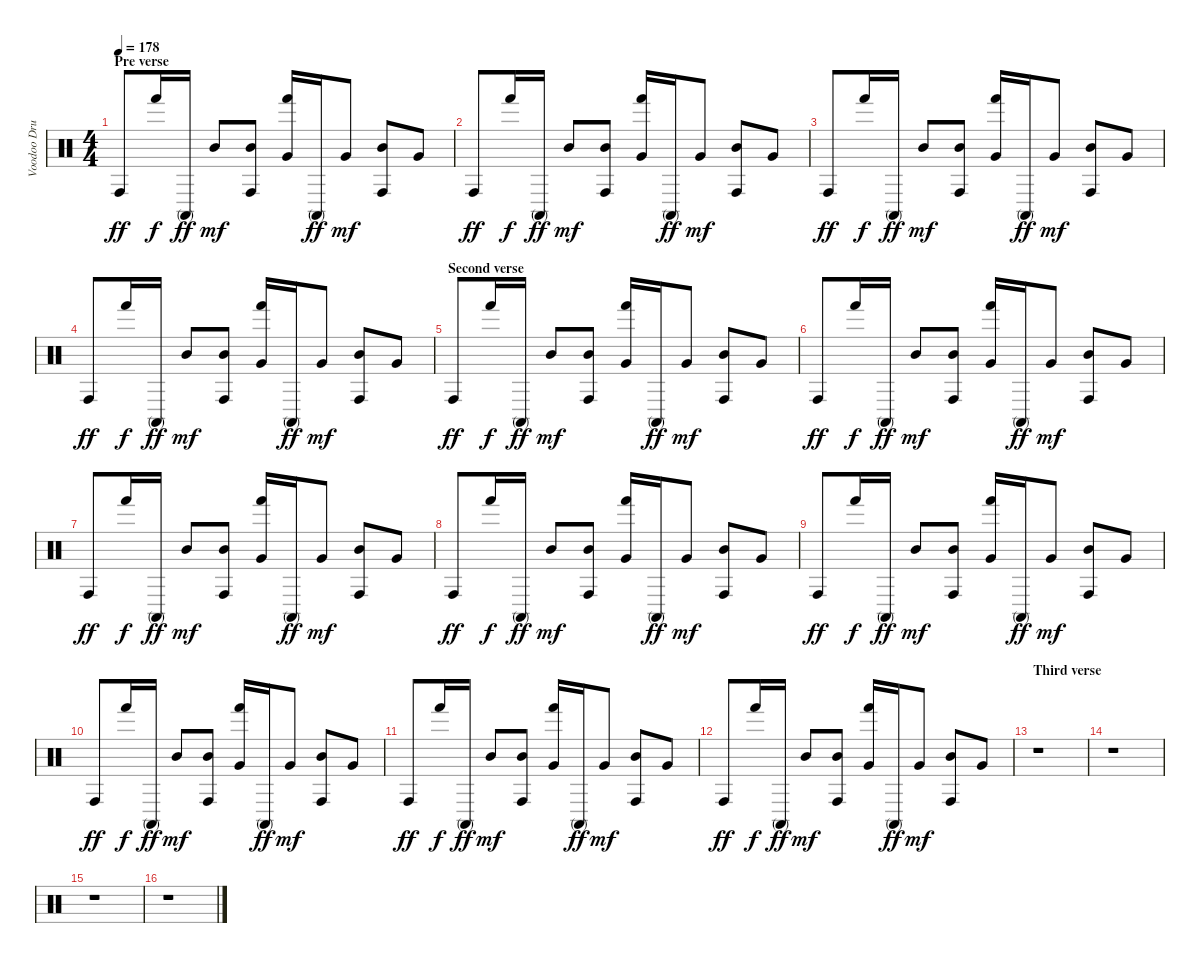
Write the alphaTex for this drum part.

\track ("Voodoo Drums" "Voodoo Dru") {instrument percussion}
\staff {score}
\articulation defaults
\ts (4 4)
\section ("" "Pre verse")
\tempo 178
\clef neutral
\ks c "Conga high (hit)".8{dy ff} "Hand (hit)".16{dy f} "Conga high (mute)".16{dy ff} "Mid Tom (hit)".8{dy mf}
("Conga high (hit)" "Mid Tom (hit)").8 ("Hand (hit)" "Very Low Tom (hit)").16 "Conga high (mute)".16{dy ff} "Very Low Tom (hit)".8{dy mf} ("Conga high (hit)" "Mid Tom (hit)").8 "Very Low Tom (hit)".8 |
"Conga high (hit)".8{dy ff} "Hand (hit)".16{dy f} "Conga high (mute)".16{dy ff} "Mid Tom (hit)".8{dy mf} ("Conga high (hit)" "Mid Tom (hit)").8 ("Hand (hit)" "Very Low Tom (hit)").16 "Conga high (mute)".16{dy ff} "Very Low Tom (hit)".8{dy mf} ("Conga high (hit)" "Mid Tom (hit)").8 "Very Low Tom (hit)".8 |
"Conga high (hit)".8{dy ff} "Hand (hit)".16{dy f} "Conga high (mute)".16{dy ff} "Mid Tom (hit)".8{dy mf} ("Conga high (hit)" "Mid Tom (hit)").8 ("Hand (hit)" "Very Low Tom (hit)").16 "Conga high (mute)".16{dy ff} "Very Low Tom (hit)".8{dy mf} ("Conga high (hit)" "Mid Tom (hit)").8 "Very Low Tom (hit)".8 |
"Conga high (hit)".8{dy ff} "Hand (hit)".16{dy f} "Conga high (mute)".16{dy ff} "Mid Tom (hit)".8{dy mf} ("Conga high (hit)" "Mid Tom (hit)").8 ("Hand (hit)" "Very Low Tom (hit)").16 "Conga high (mute)".16{dy ff} "Very Low Tom (hit)".8{dy mf} ("Conga high (hit)" "Mid Tom (hit)").8 "Very Low Tom (hit)".8 |
\section ("" "Second verse")
"Conga high (hit)".8{dy ff} "Hand (hit)".16{dy f} "Conga high (mute)".16{dy ff} "Mid Tom (hit)".8{dy mf} ("Conga high (hit)" "Mid Tom (hit)").8 ("Hand (hit)" "Very Low Tom (hit)").16 "Conga high (mute)".16{dy ff} "Very Low Tom (hit)".8{dy mf} ("Conga high (hit)" "Mid Tom (hit)").8 "Very Low Tom (hit)".8 |
"Conga high (hit)".8{dy ff} "Hand (hit)".16{dy f} "Conga high (mute)".16{dy ff} "Mid Tom (hit)".8{dy mf} ("Conga high (hit)" "Mid Tom (hit)").8 ("Hand (hit)" "Very Low Tom (hit)").16 "Conga high (mute)".16{dy ff} "Very Low Tom (hit)".8{dy mf} ("Conga high (hit)" "Mid Tom (hit)").8 "Very Low Tom (hit)".8 |
"Conga high (hit)".8{dy ff} "Hand (hit)".16{dy f} "Conga high (mute)".16{dy ff} "Mid Tom (hit)".8{dy mf} ("Conga high (hit)" "Mid Tom (hit)").8 ("Hand (hit)" "Very Low Tom (hit)").16 "Conga high (mute)".16{dy ff} "Very Low Tom (hit)".8{dy mf} ("Conga high (hit)" "Mid Tom (hit)").8 "Very Low Tom (hit)".8 |
"Conga high (hit)".8{dy ff} "Hand (hit)".16{dy f} "Conga high (mute)".16{dy ff} "Mid Tom (hit)".8{dy mf} ("Conga high (hit)" "Mid Tom (hit)").8 ("Hand (hit)" "Very Low Tom (hit)").16 "Conga high (mute)".16{dy ff} "Very Low Tom (hit)".8{dy mf} ("Conga high (hit)" "Mid Tom (hit)").8 "Very Low Tom (hit)".8 |
"Conga high (hit)".8{dy ff} "Hand (hit)".16{dy f} "Conga high (mute)".16{dy ff} "Mid Tom (hit)".8{dy mf} ("Conga high (hit)" "Mid Tom (hit)").8 ("Hand (hit)" "Very Low Tom (hit)").16 "Conga high (mute)".16{dy ff} "Very Low Tom (hit)".8{dy mf} ("Conga high (hit)" "Mid Tom (hit)").8 "Very Low Tom (hit)".8 |
"Conga high (hit)".8{dy ff} "Hand (hit)".16{dy f} "Conga high (mute)".16{dy ff} "Mid Tom (hit)".8{dy mf} ("Conga high (hit)" "Mid Tom (hit)").8 ("Hand (hit)" "Very Low Tom (hit)").16 "Conga high (mute)".16{dy ff} "Very Low Tom (hit)".8{dy mf} ("Conga high (hit)" "Mid Tom (hit)").8 "Very Low Tom (hit)".8 |
"Conga high (hit)".8{dy ff} "Hand (hit)".16{dy f} "Conga high (mute)".16{dy ff} "Mid Tom (hit)".8{dy mf} ("Conga high (hit)" "Mid Tom (hit)").8 ("Hand (hit)" "Very Low Tom (hit)").16 "Conga high (mute)".16{dy ff} "Very Low Tom (hit)".8{dy mf} ("Conga high (hit)" "Mid Tom (hit)").8 "Very Low Tom (hit)".8 |
"Conga high (hit)".8{dy ff} "Hand (hit)".16{dy f} "Conga high (mute)".16{dy ff} "Mid Tom (hit)".8{dy mf} ("Conga high (hit)" "Mid Tom (hit)").8 ("Hand (hit)" "Very Low Tom (hit)").16 "Conga high (mute)".16{dy ff} "Very Low Tom (hit)".8{dy mf} ("Conga high (hit)" "Mid Tom (hit)").8 "Very Low Tom (hit)".8 |
\section ("" "Third verse")
r.1 |
r.1 |
r.1 |
r.1
